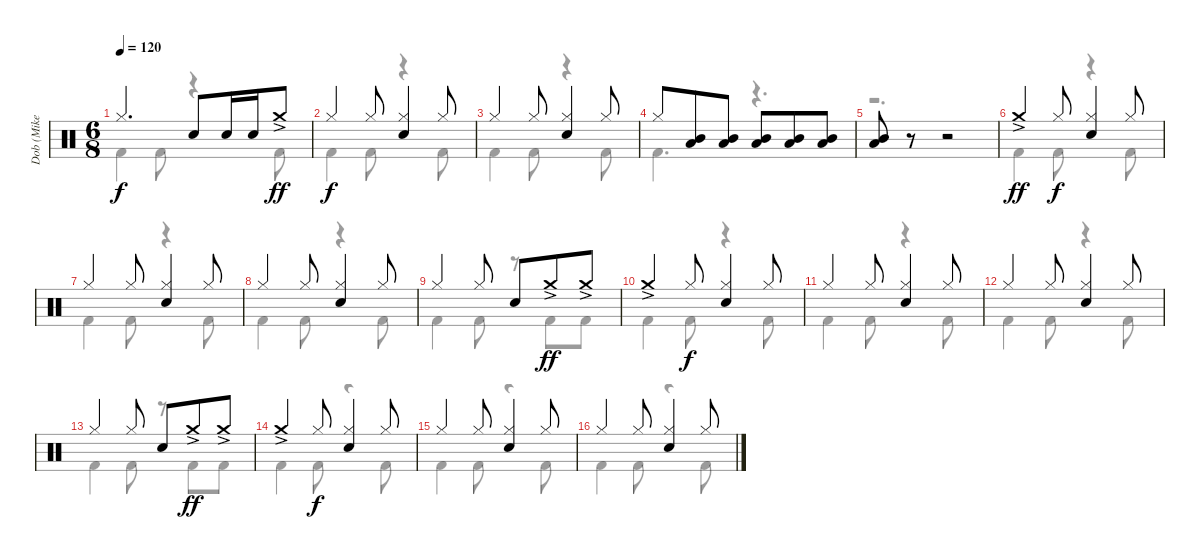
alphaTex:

\track ("Dob (Mike Terrana)" "Dob (Mike ") {instrument percussion}
\staff {score}
\articulation defaults
\voice
\ts (6 8)
\tempo 120
\clef neutral
\ks c "Hi-Hat (closed)".4{d dy f} "Electric Snare (hit)".8 "Electric Snare (hit)".16 "Electric Snare (hit)".16 "Crash medium (hit)"{ac}.8{dy ff}
|
"Hi-Hat (closed)".4{dy f} "Hi-Hat (closed)".8 ("Hi-Hat (closed)" "Electric Snare (hit)").4 "Hi-Hat (closed)".8 |
"Hi-Hat (closed)".4 "Hi-Hat (closed)".8 ("Hi-Hat (closed)" "Electric Snare (hit)").4 "Hi-Hat (closed)".8 |
"Hi-Hat (closed)".8 ("Mid Tom (hit)" "Low Tom (hit)").8 ("Mid Tom (hit)" "Low Tom (hit)").8 ("Mid Tom (hit)" "Low Tom (hit)").8 ("Mid Tom (hit)" "Low Tom (hit)").8 ("Mid Tom (hit)" "Low Tom (hit)").8 |
("Mid Tom (hit)" "Low Tom (hit)").8 r.8 r.2 |
"Crash medium (hit)"{ac}.4{dy ff} "Hi-Hat (closed)".8{dy f} ("Hi-Hat (closed)" "Electric Snare (hit)").4 "Hi-Hat (closed)".8 |
"Hi-Hat (closed)".4 "Hi-Hat (closed)".8 ("Hi-Hat (closed)" "Electric Snare (hit)").4 "Hi-Hat (closed)".8 |
"Hi-Hat (closed)".4 "Hi-Hat (closed)".8 ("Hi-Hat (closed)" "Electric Snare (hit)").4 "Hi-Hat (closed)".8 |
"Hi-Hat (closed)".4 "Hi-Hat (closed)".8 "Electric Snare (hit)".8 "Crash medium (hit)"{ac}.8{dy ff} "Crash medium (hit)"{ac}.8 |
"Crash medium (hit)"{ac}.4 "Hi-Hat (closed)".8{dy f} ("Hi-Hat (closed)" "Electric Snare (hit)").4 "Hi-Hat (closed)".8 |
"Hi-Hat (closed)".4 "Hi-Hat (closed)".8 ("Hi-Hat (closed)" "Electric Snare (hit)").4 "Hi-Hat (closed)".8 |
"Hi-Hat (closed)".4 "Hi-Hat (closed)".8 ("Hi-Hat (closed)" "Electric Snare (hit)").4 "Hi-Hat (closed)".8 |
"Hi-Hat (closed)".4 "Hi-Hat (closed)".8 "Electric Snare (hit)".8 "Crash medium (hit)"{ac}.8{dy ff} "Crash medium (hit)"{ac}.8 |
"Crash medium (hit)"{ac}.4 "Hi-Hat (closed)".8{dy f} ("Hi-Hat (closed)" "Electric Snare (hit)").4 "Hi-Hat (closed)".8 |
"Hi-Hat (closed)".4 "Hi-Hat (closed)".8 ("Hi-Hat (closed)" "Electric Snare (hit)").4 "Hi-Hat (closed)".8 |
"Hi-Hat (closed)".4 "Hi-Hat (closed)".8 ("Hi-Hat (closed)" "Electric Snare (hit)").4 "Hi-Hat (closed)".8
\voice
\clef neutral
\ottava regular
\simile none
\ks c "Kick (hit) 2".4{dy f} "Kick (hit) 2".8
r.4 "Kick (hit) 2".8 |
"Kick (hit) 2".4 "Kick (hit) 2".8 r.4 "Kick (hit) 2".8 |
"Kick (hit) 2".4 "Kick (hit) 2".8 r.4 "Kick (hit) 2".8 |
"Kick (hit) 2".4{d} r.4{d} |
r.2{d} |
"Kick (hit) 2".4 "Kick (hit) 2".8 r.4 "Kick (hit) 2".8 |
"Kick (hit) 2".4 "Kick (hit) 2".8 r.4 "Kick (hit) 2".8 |
"Kick (hit) 2".4 "Kick (hit) 2".8 r.4 "Kick (hit) 2".8 |
"Kick (hit) 2".4 "Kick (hit) 2".8 r.8 "Kick (hit) 2".8 "Kick (hit) 2".8 |
"Kick (hit) 2".4 "Kick (hit) 2".8 r.4 "Kick (hit) 2".8 |
"Kick (hit) 2".4 "Kick (hit) 2".8 r.4 "Kick (hit) 2".8 |
"Kick (hit) 2".4 "Kick (hit) 2".8 r.4 "Kick (hit) 2".8 |
"Kick (hit) 2".4 "Kick (hit) 2".8 r.8 "Kick (hit) 2".8 "Kick (hit) 2".8 |
"Kick (hit) 2".4 "Kick (hit) 2".8 r.4 "Kick (hit) 2".8 |
"Kick (hit) 2".4 "Kick (hit) 2".8 r.4 "Kick (hit) 2".8 |
"Kick (hit) 2".4 "Kick (hit) 2".8 r.4 "Kick (hit) 2".8
